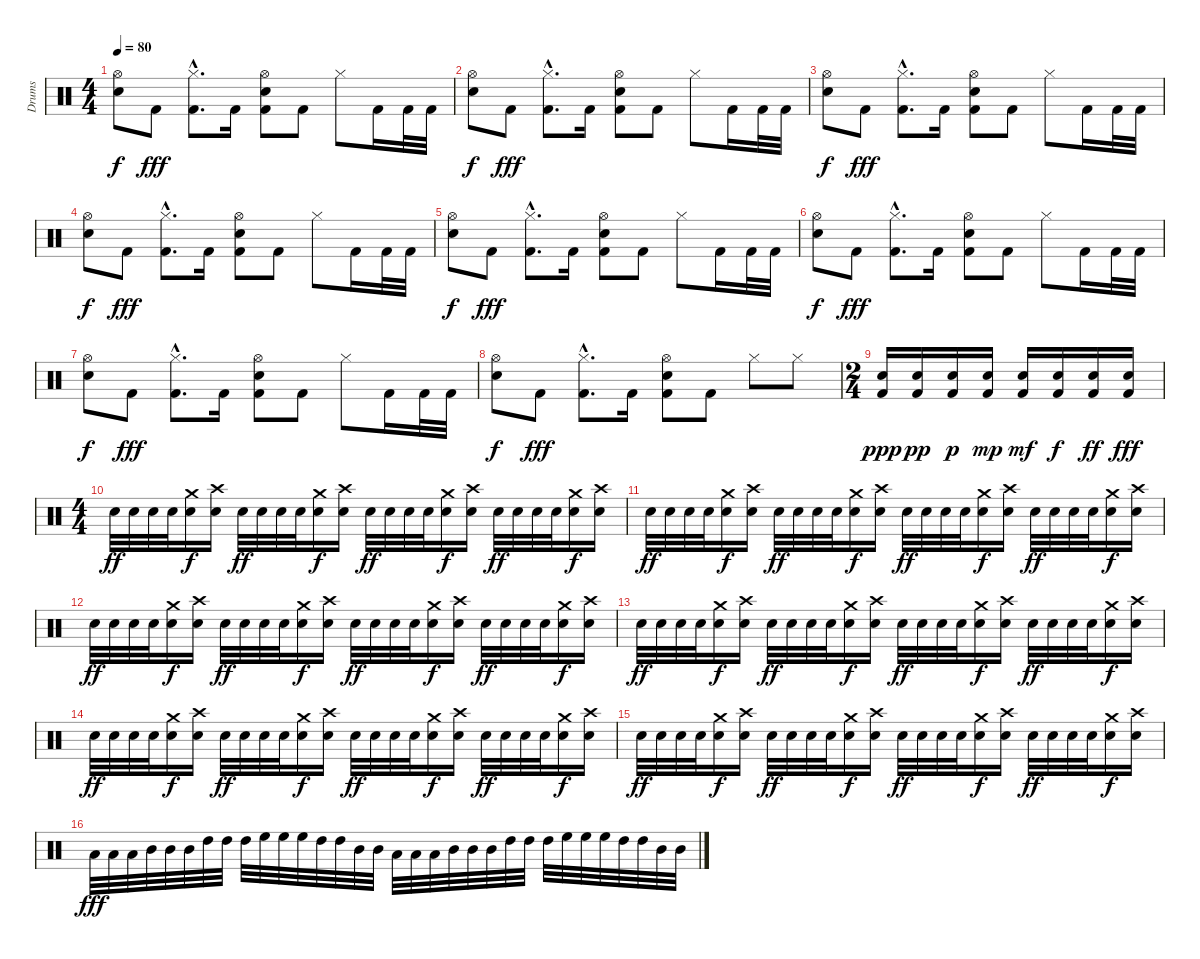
\track ("Drums" "Drums") {instrument percussion}
\staff {score}
\articulation defaults
\ts (4 4)
\tempo 80
\clef neutral
\ks c
("Hi-Hat (open)" "Electric Snare (hit)").8{dy f} "Kick (hit) 2".8{dy fff} ("Hi-Hat (closed)"{hac} "Kick (hit) 2"{hac}).8{d} "Kick (hit) 2".16 ("Hi-Hat (open)" "Kick (hit) 2" "Snare (hit) 2").8 "Kick (hit) 2".8 "Hi-Hat (closed)".8 "Kick (hit) 2".16 "Kick (hit) 2".32 "Kick (hit) 2".32 |
("Hi-Hat (open)" "Electric Snare (hit)").8{dy f} "Kick (hit) 2".8{dy fff} ("Hi-Hat (closed)"{hac} "Kick (hit) 2"{hac}).8{d} "Kick (hit) 2".16 ("Hi-Hat (open)" "Kick (hit) 2" "Snare (hit) 2").8 "Kick (hit) 2".8 "Hi-Hat (closed)".8 "Kick (hit) 2".16 "Kick (hit) 2".32 "Kick (hit) 2".32 |
("Hi-Hat (open)" "Electric Snare (hit)").8{dy f} "Kick (hit) 2".8{dy fff} ("Hi-Hat (closed)"{hac} "Kick (hit) 2"{hac}).8{d} "Kick (hit) 2".16 ("Hi-Hat (open)" "Kick (hit) 2" "Snare (hit) 2").8 "Kick (hit) 2".8 "Hi-Hat (closed)".8 "Kick (hit) 2".16 "Kick (hit) 2".32 "Kick (hit) 2".32 |
("Hi-Hat (open)" "Electric Snare (hit)").8{dy f} "Kick (hit) 2".8{dy fff} ("Hi-Hat (closed)"{hac} "Kick (hit) 2"{hac}).8{d} "Kick (hit) 2".16 ("Hi-Hat (open)" "Kick (hit) 2" "Snare (hit) 2").8 "Kick (hit) 2".8 "Hi-Hat (closed)".8 "Kick (hit) 2".16 "Kick (hit) 2".32 "Kick (hit) 2".32 |
("Hi-Hat (open)" "Electric Snare (hit)").8{dy f} "Kick (hit) 2".8{dy fff} ("Hi-Hat (closed)"{hac} "Kick (hit) 2"{hac}).8{d} "Kick (hit) 2".16 ("Hi-Hat (open)" "Kick (hit) 2" "Snare (hit) 2").8 "Kick (hit) 2".8 "Hi-Hat (closed)".8 "Kick (hit) 2".16 "Kick (hit) 2".32 "Kick (hit) 2".32 |
("Hi-Hat (open)" "Electric Snare (hit)").8{dy f} "Kick (hit) 2".8{dy fff} ("Hi-Hat (closed)"{hac} "Kick (hit) 2"{hac}).8{d} "Kick (hit) 2".16 ("Hi-Hat (open)" "Kick (hit) 2" "Snare (hit) 2").8 "Kick (hit) 2".8 "Hi-Hat (closed)".8 "Kick (hit) 2".16 "Kick (hit) 2".32 "Kick (hit) 2".32 |
("Hi-Hat (open)" "Electric Snare (hit)").8{dy f} "Kick (hit) 2".8{dy fff} ("Hi-Hat (closed)"{hac} "Kick (hit) 2"{hac}).8{d} "Kick (hit) 2".16 ("Hi-Hat (open)" "Kick (hit) 2" "Snare (hit) 2").8 "Kick (hit) 2".8 "Hi-Hat (closed)".8 "Kick (hit) 2".16 "Kick (hit) 2".32 "Kick (hit) 2".32 |
("Hi-Hat (open)" "Electric Snare (hit)").8{dy f} "Kick (hit) 2".8{dy fff} ("Hi-Hat (closed)"{hac} "Kick (hit) 2"{hac}).8{d} "Kick (hit) 2".16 ("Hi-Hat (open)" "Kick (hit) 2" "Snare (hit) 2").8 "Kick (hit) 2".8 "Hi-Hat (closed)".8 "Hi-Hat (closed)".8 |
\ts (2 4)
("Electric Snare (hit)" "Kick (hit) 2").16{dy ppp} ("Electric Snare (hit)" "Kick (hit) 2").16{dy pp} ("Electric Snare (hit)" "Kick (hit) 2").16{dy p} ("Electric Snare (hit)" "Kick (hit) 2").16{dy mp} ("Electric Snare (hit)" "Kick (hit) 2").16{dy mf} ("Electric Snare (hit)" "Kick (hit) 2").16{dy f} ("Electric Snare (hit)" "Kick (hit) 2").16{dy ff} ("Electric Snare (hit)" "Kick (hit) 2").16{dy fff} |
\ts (4 4)
"Electric Snare (hit)".32{dy ff} "Electric Snare (hit)".32 "Electric Snare (hit)".32 "Electric Snare (hit)".32 ("Snare (hit) 2" "Crash medium (hit)").16{dy f} ("Snare (hit) 2" "Crash high (hit)").16 "Electric Snare (hit)".32{dy ff} "Electric Snare (hit)".32 "Electric Snare (hit)".32 "Electric Snare (hit)".32 ("Snare (hit) 2" "Crash medium (hit)").16{dy f} ("Snare (hit) 2" "Crash high (hit)").16 "Electric Snare (hit)".32{dy ff} "Electric Snare (hit)".32 "Electric Snare (hit)".32 "Electric Snare (hit)".32 ("Snare (hit) 2" "Crash medium (hit)").16{dy f} ("Snare (hit) 2" "Crash high (hit)").16 "Electric Snare (hit)".32{dy ff} "Electric Snare (hit)".32 "Electric Snare (hit)".32 "Electric Snare (hit)".32 ("Snare (hit) 2" "Crash medium (hit)").16{dy f} ("Snare (hit) 2" "Crash high (hit)").16 |
"Electric Snare (hit)".32{dy ff} "Electric Snare (hit)".32 "Electric Snare (hit)".32 "Electric Snare (hit)".32 ("Snare (hit) 2" "Crash medium (hit)").16{dy f} ("Snare (hit) 2" "Crash high (hit)").16 "Electric Snare (hit)".32{dy ff} "Electric Snare (hit)".32 "Electric Snare (hit)".32 "Electric Snare (hit)".32 ("Snare (hit) 2" "Crash medium (hit)").16{dy f} ("Snare (hit) 2" "Crash high (hit)").16 "Electric Snare (hit)".32{dy ff} "Electric Snare (hit)".32 "Electric Snare (hit)".32 "Electric Snare (hit)".32 ("Snare (hit) 2" "Crash medium (hit)").16{dy f} ("Snare (hit) 2" "Crash high (hit)").16 "Electric Snare (hit)".32{dy ff} "Electric Snare (hit)".32 "Electric Snare (hit)".32 "Electric Snare (hit)".32 ("Snare (hit) 2" "Crash medium (hit)").16{dy f} ("Snare (hit) 2" "Crash high (hit)").16 |
"Electric Snare (hit)".32{dy ff} "Electric Snare (hit)".32 "Electric Snare (hit)".32 "Electric Snare (hit)".32 ("Snare (hit) 2" "Crash medium (hit)").16{dy f} ("Snare (hit) 2" "Crash high (hit)").16 "Electric Snare (hit)".32{dy ff} "Electric Snare (hit)".32 "Electric Snare (hit)".32 "Electric Snare (hit)".32 ("Snare (hit) 2" "Crash medium (hit)").16{dy f} ("Snare (hit) 2" "Crash high (hit)").16 "Electric Snare (hit)".32{dy ff} "Electric Snare (hit)".32 "Electric Snare (hit)".32 "Electric Snare (hit)".32 ("Snare (hit) 2" "Crash medium (hit)").16{dy f} ("Snare (hit) 2" "Crash high (hit)").16 "Electric Snare (hit)".32{dy ff} "Electric Snare (hit)".32 "Electric Snare (hit)".32 "Electric Snare (hit)".32 ("Snare (hit) 2" "Crash medium (hit)").16{dy f} ("Snare (hit) 2" "Crash high (hit)").16 |
"Electric Snare (hit)".32{dy ff} "Electric Snare (hit)".32 "Electric Snare (hit)".32 "Electric Snare (hit)".32 ("Snare (hit) 2" "Crash medium (hit)").16{dy f} ("Snare (hit) 2" "Crash high (hit)").16 "Electric Snare (hit)".32{dy ff} "Electric Snare (hit)".32 "Electric Snare (hit)".32 "Electric Snare (hit)".32 ("Snare (hit) 2" "Crash medium (hit)").16{dy f} ("Snare (hit) 2" "Crash high (hit)").16 "Electric Snare (hit)".32{dy ff} "Electric Snare (hit)".32 "Electric Snare (hit)".32 "Electric Snare (hit)".32 ("Snare (hit) 2" "Crash medium (hit)").16{dy f} ("Snare (hit) 2" "Crash high (hit)").16 "Electric Snare (hit)".32{dy ff} "Electric Snare (hit)".32 "Electric Snare (hit)".32 "Electric Snare (hit)".32 ("Snare (hit) 2" "Crash medium (hit)").16{dy f} ("Snare (hit) 2" "Crash high (hit)").16 |
"Electric Snare (hit)".32{dy ff} "Electric Snare (hit)".32 "Electric Snare (hit)".32 "Electric Snare (hit)".32 ("Snare (hit) 2" "Crash medium (hit)").16{dy f} ("Snare (hit) 2" "Crash high (hit)").16 "Electric Snare (hit)".32{dy ff} "Electric Snare (hit)".32 "Electric Snare (hit)".32 "Electric Snare (hit)".32 ("Snare (hit) 2" "Crash medium (hit)").16{dy f} ("Snare (hit) 2" "Crash high (hit)").16 "Electric Snare (hit)".32{dy ff} "Electric Snare (hit)".32 "Electric Snare (hit)".32 "Electric Snare (hit)".32 ("Snare (hit) 2" "Crash medium (hit)").16{dy f} ("Snare (hit) 2" "Crash high (hit)").16 "Electric Snare (hit)".32{dy ff} "Electric Snare (hit)".32 "Electric Snare (hit)".32 "Electric Snare (hit)".32 ("Snare (hit) 2" "Crash medium (hit)").16{dy f} ("Snare (hit) 2" "Crash high (hit)").16 |
"Electric Snare (hit)".32{dy ff} "Electric Snare (hit)".32 "Electric Snare (hit)".32 "Electric Snare (hit)".32 ("Snare (hit) 2" "Crash medium (hit)").16{dy f} ("Snare (hit) 2" "Crash high (hit)").16 "Electric Snare (hit)".32{dy ff} "Electric Snare (hit)".32 "Electric Snare (hit)".32 "Electric Snare (hit)".32 ("Snare (hit) 2" "Crash medium (hit)").16{dy f} ("Snare (hit) 2" "Crash high (hit)").16 "Electric Snare (hit)".32{dy ff} "Electric Snare (hit)".32 "Electric Snare (hit)".32 "Electric Snare (hit)".32 ("Snare (hit) 2" "Crash medium (hit)").16{dy f} ("Snare (hit) 2" "Crash high (hit)").16 "Electric Snare (hit)".32{dy ff} "Electric Snare (hit)".32 "Electric Snare (hit)".32 "Electric Snare (hit)".32 ("Snare (hit) 2" "Crash medium (hit)").16{dy f} ("Snare (hit) 2" "Crash high (hit)").16 |
"Low Tom (hit)".32{dy fff} "Low Tom (hit)".32 "Low Tom (hit)".32 "Mid Tom (hit)".32 "Mid Tom (hit)".32 "Mid Tom (hit)".32 "High Tom (hit)".32 "High Tom (hit)".32 "High Tom (hit)".32 "High Floor Tom (hit)".32 "High Floor Tom (hit)".32 "High Floor Tom (hit)".32 "High Tom (hit)".32 "High Tom (hit)".32 "Mid Tom (hit)".32 "Mid Tom (hit)".32 "Low Tom (hit)".32 "Low Tom (hit)".32 "Low Tom (hit)".32 "Mid Tom (hit)".32 "Mid Tom (hit)".32 "Mid Tom (hit)".32 "High Tom (hit)".32 "High Tom (hit)".32 "High Tom (hit)".32 "High Floor Tom (hit)".32 "High Floor Tom (hit)".32 "High Floor Tom (hit)".32 "High Tom (hit)".32 "High Tom (hit)".32 "Mid Tom (hit)".32 "Mid Tom (hit)".32
